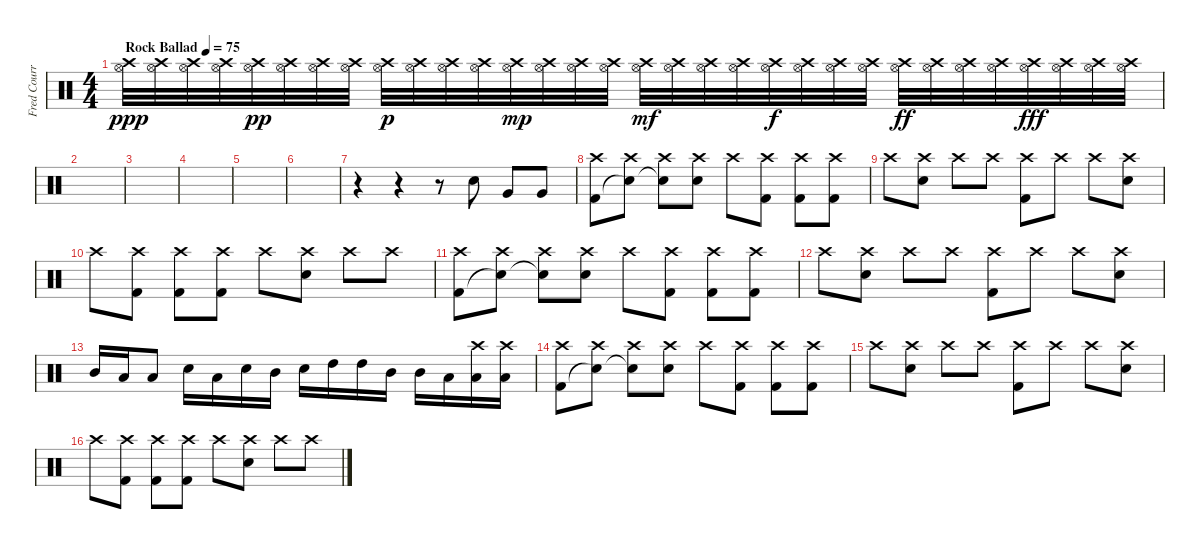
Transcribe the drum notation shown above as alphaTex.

\track ("Fred Courry" "Fred Courr") {instrument percussion}
\staff {score}
\articulation defaults
\ts (4 4)
\tempo (75 "Rock Ballad")
\clef neutral
\ks c
("Hi-Hat (open)" "Crash high (hit)").32{dy ppp} ("Hi-Hat (open)" "Crash high (hit)").32 ("Hi-Hat (open)" "Crash high (hit)").32 ("Hi-Hat (open)" "Crash high (hit)").32 ("Hi-Hat (open)" "Crash high (hit)").32{dy pp} ("Hi-Hat (open)" "Crash high (hit)").32 ("Hi-Hat (open)" "Crash high (hit)").32 ("Hi-Hat (open)" "Crash high (hit)").32 ("Hi-Hat (open)" "Crash high (hit)").32{dy p} ("Hi-Hat (open)" "Crash high (hit)").32 ("Hi-Hat (open)" "Crash high (hit)").32 ("Hi-Hat (open)" "Crash high (hit)").32 ("Hi-Hat (open)" "Crash high (hit)").32{dy mp} ("Hi-Hat (open)" "Crash high (hit)").32 ("Hi-Hat (open)" "Crash high (hit)").32 ("Hi-Hat (open)" "Crash high (hit)").32 ("Hi-Hat (open)" "Crash high (hit)").32{dy mf} ("Hi-Hat (open)" "Crash high (hit)").32 ("Hi-Hat (open)" "Crash high (hit)").32 ("Hi-Hat (open)" "Crash high (hit)").32 ("Hi-Hat (open)" "Crash high (hit)").32{dy f} ("Hi-Hat (open)" "Crash high (hit)").32 ("Hi-Hat (open)" "Crash high (hit)").32 ("Hi-Hat (open)" "Crash high (hit)").32 ("Hi-Hat (open)" "Crash high (hit)").32{dy ff} ("Hi-Hat (open)" "Crash high (hit)").32 ("Hi-Hat (open)" "Crash high (hit)").32 ("Hi-Hat (open)" "Crash high (hit)").32 ("Hi-Hat (open)" "Crash high (hit)").32{dy fff} ("Hi-Hat (open)" "Crash high (hit)").32 ("Hi-Hat (open)" "Crash high (hit)").32 ("Hi-Hat (open)" "Crash high (hit)").32 |
|
|
|
|
|
r.4 r.4 r.8 "Snare (hit) 2".8 "Very Low Tom (hit)".8 "Very Low Tom (hit)".8 |
("Crash high (hit)" "Kick (hit) 2").8 ("Crash high (hit)" "Snare (hit)"{t}).8 ("Crash high (hit)" "Snare (hit)"{t}).8 ("Crash high (hit)" "Snare (hit) 2").8 "Crash high (hit)".8 ("Crash high (hit)" "Kick (hit) 2").8 ("Crash high (hit)" "Kick (hit) 2").8 ("Crash high (hit)" "Kick (hit) 2").8 |
"Crash high (hit)".8 ("Crash high (hit)" "Snare (hit) 2").8 "Crash high (hit)".8 "Crash high (hit)".8 ("Crash high (hit)" "Kick (hit) 2").8 "Crash high (hit)".8 "Crash high (hit)".8 ("Crash high (hit)" "Snare (hit) 2").8 |
"Crash high (hit)".8 ("Crash high (hit)" "Kick (hit) 2").8 ("Crash high (hit)" "Kick (hit) 2").8 ("Crash high (hit)" "Kick (hit) 2").8 "Crash high (hit)".8 ("Crash high (hit)" "Snare (hit) 2").8 "Crash high (hit)".8 "Crash high (hit)".8 |
("Crash high (hit)" "Kick (hit) 2").8 ("Crash high (hit)" "Snare (hit)"{t}).8 ("Crash high (hit)" "Snare (hit)"{t}).8 ("Crash high (hit)" "Snare (hit) 2").8 "Crash high (hit)".8 ("Crash high (hit)" "Kick (hit) 2").8 ("Crash high (hit)" "Kick (hit) 2").8 ("Crash high (hit)" "Kick (hit) 2").8 |
"Crash high (hit)".8 ("Crash high (hit)" "Snare (hit) 2").8 "Crash high (hit)".8 "Crash high (hit)".8 ("Crash high (hit)" "Kick (hit) 2").8 "Crash high (hit)".8 "Crash high (hit)".8 ("Crash high (hit)" "Snare (hit) 2").8 |
"Mid Tom (hit)".16 "Low Tom (hit)".16 "Low Tom (hit)".8 "Snare (hit) 2".16 "Low Tom (hit)".16 "Snare (hit) 2".16 "Mid Tom (hit)".16 "Snare (hit) 2".16 "High Tom (hit)".16 "High Tom (hit)".16 "Mid Tom (hit)".16 "Mid Tom (hit)".16 "Low Tom (hit)".16 ("Crash high (hit)" "Low Tom (hit)").16 ("Crash high (hit)" "Low Floor Tom (hit)").16 |
("Crash high (hit)" "Kick (hit) 2").8 ("Crash high (hit)" "Snare (hit)"{t}).8 ("Crash high (hit)" "Snare (hit)"{t}).8 ("Crash high (hit)" "Snare (hit) 2").8 "Crash high (hit)".8 ("Crash high (hit)" "Kick (hit) 2").8 ("Crash high (hit)" "Kick (hit) 2").8 ("Crash high (hit)" "Kick (hit) 2").8 |
"Crash high (hit)".8 ("Crash high (hit)" "Snare (hit) 2").8 "Crash high (hit)".8 "Crash high (hit)".8 ("Crash high (hit)" "Kick (hit) 2").8 "Crash high (hit)".8 "Crash high (hit)".8 ("Crash high (hit)" "Snare (hit) 2").8 |
"Crash high (hit)".8 ("Crash high (hit)" "Kick (hit) 2").8 ("Crash high (hit)" "Kick (hit) 2").8 ("Crash high (hit)" "Kick (hit) 2").8 "Crash high (hit)".8 ("Crash high (hit)" "Snare (hit) 2").8 "Crash high (hit)".8 "Crash high (hit)".8
